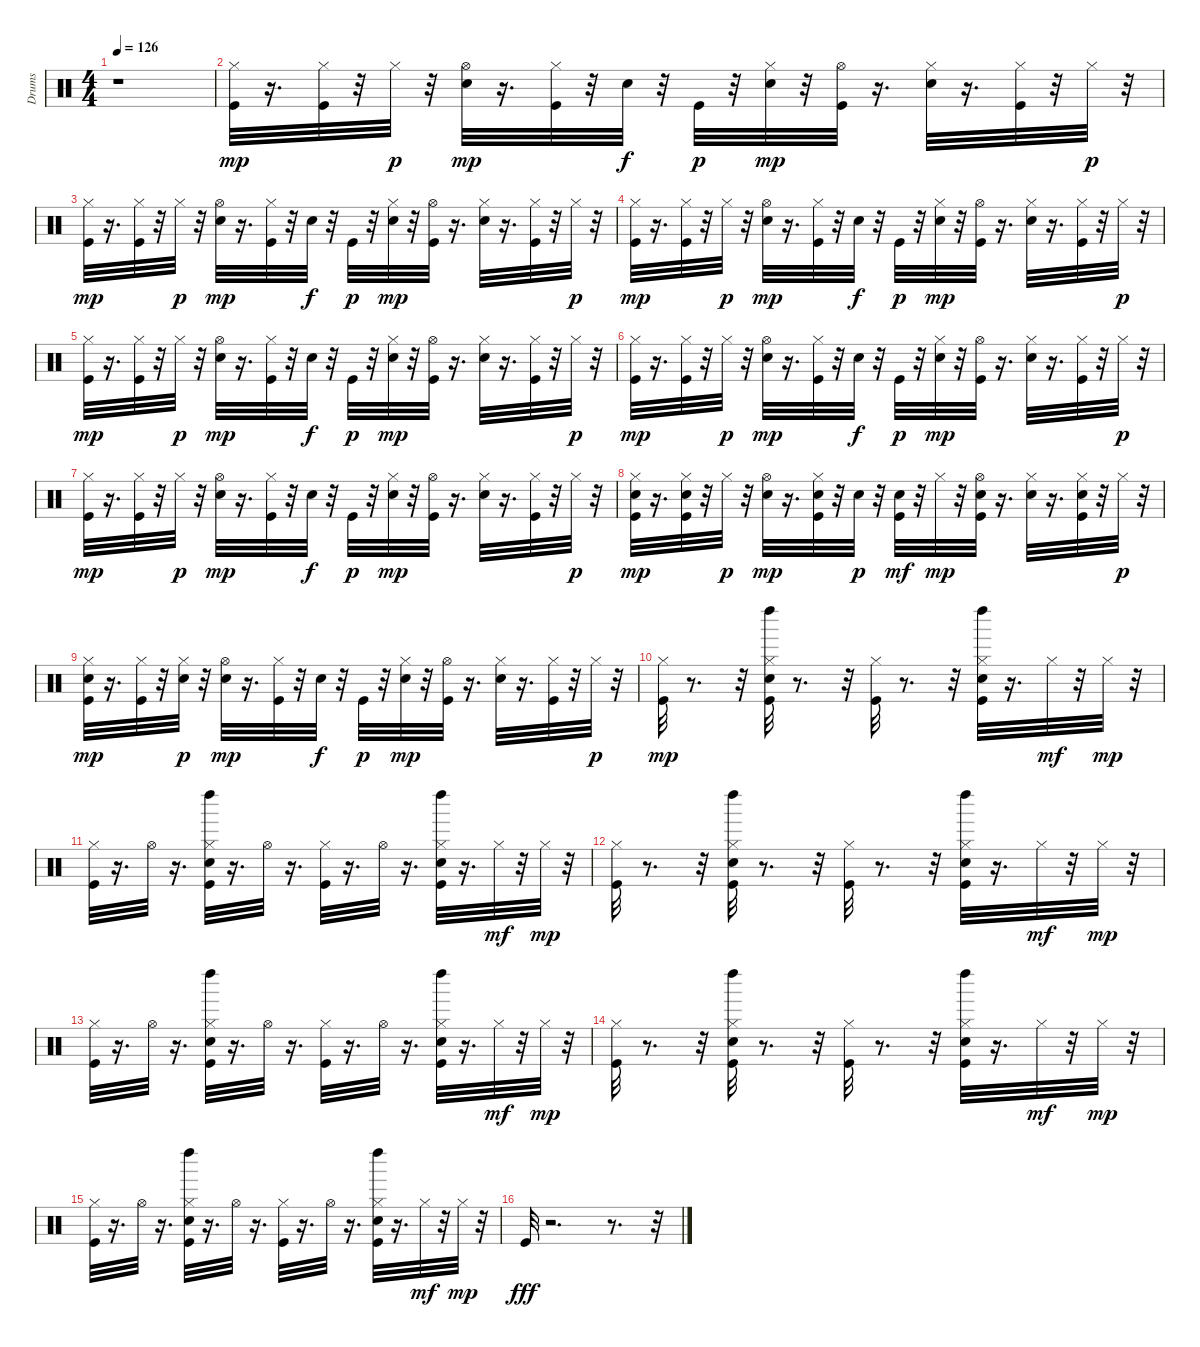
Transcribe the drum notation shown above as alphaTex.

\track ("Drums" "Drums") {instrument percussion}
\staff {score}
\articulation defaults
\ts (4 4)
\tempo 126
\clef neutral
\ks c
r.1{dy fff} |
("Kick (hit)" "Hi-Hat (closed)").32{dy mp} r.16{d} ("Kick (hit)" "Hi-Hat (closed)").32 r.32 "Hi-Hat (closed)".32{dy p} r.32 ("Snare (hit) 2" "Hi-Hat (open)").32{dy mp} r.16{d} ("Kick (hit)" "Hi-Hat (closed)").32 r.32 "Snare (hit) 2".32{dy f} r.32 "Kick (hit)".32{dy p} r.32 ("Snare (hit) 2" "Hi-Hat (closed)").32{dy mp} r.32 ("Kick (hit)" "Hi-Hat (open)").32 r.16{d} ("Snare (hit) 2" "Hi-Hat (closed)").32 r.16{d} ("Kick (hit)" "Hi-Hat (closed)").32 r.32 "Hi-Hat (closed)".32{dy p} r.32 |
("Kick (hit)" "Hi-Hat (closed)").32{dy mp} r.16{d} ("Kick (hit)" "Hi-Hat (closed)").32 r.32 "Hi-Hat (closed)".32{dy p} r.32 ("Snare (hit) 2" "Hi-Hat (open)").32{dy mp} r.16{d} ("Kick (hit)" "Hi-Hat (closed)").32 r.32 "Snare (hit) 2".32{dy f} r.32 "Kick (hit)".32{dy p} r.32 ("Snare (hit) 2" "Hi-Hat (closed)").32{dy mp} r.32 ("Kick (hit)" "Hi-Hat (open)").32 r.16{d} ("Snare (hit) 2" "Hi-Hat (closed)").32 r.16{d} ("Kick (hit)" "Hi-Hat (closed)").32 r.32 "Hi-Hat (closed)".32{dy p} r.32 |
("Kick (hit)" "Hi-Hat (closed)").32{dy mp} r.16{d} ("Kick (hit)" "Hi-Hat (closed)").32 r.32 "Hi-Hat (closed)".32{dy p} r.32 ("Snare (hit) 2" "Hi-Hat (open)").32{dy mp} r.16{d} ("Kick (hit)" "Hi-Hat (closed)").32 r.32 "Snare (hit) 2".32{dy f} r.32 "Kick (hit)".32{dy p} r.32 ("Snare (hit) 2" "Hi-Hat (closed)").32{dy mp} r.32 ("Kick (hit)" "Hi-Hat (open)").32 r.16{d} ("Snare (hit) 2" "Hi-Hat (closed)").32 r.16{d} ("Kick (hit)" "Hi-Hat (closed)").32 r.32 "Hi-Hat (closed)".32{dy p} r.32 |
("Kick (hit)" "Hi-Hat (closed)").32{dy mp} r.16{d} ("Kick (hit)" "Hi-Hat (closed)").32 r.32 "Hi-Hat (closed)".32{dy p} r.32 ("Snare (hit) 2" "Hi-Hat (open)").32{dy mp} r.16{d} ("Kick (hit)" "Hi-Hat (closed)").32 r.32 "Snare (hit) 2".32{dy f} r.32 "Kick (hit)".32{dy p} r.32 ("Snare (hit) 2" "Hi-Hat (closed)").32{dy mp} r.32 ("Kick (hit)" "Hi-Hat (open)").32 r.16{d} ("Snare (hit) 2" "Hi-Hat (closed)").32 r.16{d} ("Kick (hit)" "Hi-Hat (closed)").32 r.32 "Hi-Hat (closed)".32{dy p} r.32 |
("Kick (hit)" "Hi-Hat (closed)").32{dy mp} r.16{d} ("Kick (hit)" "Hi-Hat (closed)").32 r.32 "Hi-Hat (closed)".32{dy p} r.32 ("Snare (hit) 2" "Hi-Hat (open)").32{dy mp} r.16{d} ("Kick (hit)" "Hi-Hat (closed)").32 r.32 "Snare (hit) 2".32{dy f} r.32 "Kick (hit)".32{dy p} r.32 ("Snare (hit) 2" "Hi-Hat (closed)").32{dy mp} r.32 ("Kick (hit)" "Hi-Hat (open)").32 r.16{d} ("Snare (hit) 2" "Hi-Hat (closed)").32 r.16{d} ("Kick (hit)" "Hi-Hat (closed)").32 r.32 "Hi-Hat (closed)".32{dy p} r.32 |
("Kick (hit)" "Hi-Hat (closed)").32{dy mp} r.16{d} ("Kick (hit)" "Hi-Hat (closed)").32 r.32 "Hi-Hat (closed)".32{dy p} r.32 ("Snare (hit) 2" "Hi-Hat (open)").32{dy mp} r.16{d} ("Kick (hit)" "Hi-Hat (closed)").32 r.32 "Snare (hit) 2".32{dy f} r.32 "Kick (hit)".32{dy p} r.32 ("Snare (hit) 2" "Hi-Hat (closed)").32{dy mp} r.32 ("Kick (hit)" "Hi-Hat (open)").32 r.16{d} ("Snare (hit) 2" "Hi-Hat (closed)").32 r.16{d} ("Kick (hit)" "Hi-Hat (closed)").32 r.32 "Hi-Hat (closed)".32{dy p} r.32 |
("Kick (hit)" "Snare (hit) 2" "Hi-Hat (closed)").32{dy mp} r.16{d} ("Kick (hit)" "Snare (hit) 2" "Hi-Hat (closed)").32 r.32 "Hi-Hat (closed)".32{dy p} r.32 ("Snare (hit) 2" "Hi-Hat (open)").32{dy mp} r.16{d} ("Kick (hit)" "Snare (hit) 2" "Hi-Hat (closed)").32 r.32 "Snare (hit) 2".32{dy p} r.32 ("Kick (hit)" "Snare (hit) 2").32{dy mf} r.32 "Hi-Hat (closed)".32{dy mp} r.32 ("Kick (hit)" "Snare (hit) 2" "Hi-Hat (open)").32 r.16{d} ("Snare (hit) 2" "Hi-Hat (closed)").32 r.16{d} ("Kick (hit)" "Snare (hit) 2" "Hi-Hat (closed)").32 r.32 "Hi-Hat (closed)".32{dy p} r.32 |
("Kick (hit)" "Snare (hit) 2" "Hi-Hat (closed)").32{dy mp} r.16{d} ("Kick (hit)" "Hi-Hat (closed)").32 r.32 ("Snare (hit) 2" "Hi-Hat (closed)").32{dy p} r.32 ("Snare (hit) 2" "Hi-Hat (open)").32{dy mp} r.16{d} ("Kick (hit)" "Hi-Hat (closed)").32 r.32 "Snare (hit) 2".32{dy f} r.32 "Kick (hit)".32{dy p} r.32 ("Snare (hit) 2" "Hi-Hat (closed)").32{dy mp} r.32 ("Kick (hit)" "Hi-Hat (open)").32 r.16{d} ("Snare (hit) 2" "Hi-Hat (closed)").32 r.16{d} ("Kick (hit)" "Hi-Hat (closed)").32 r.32 "Hi-Hat (closed)".32{dy p} r.32 |
("Kick (hit)" "Hi-Hat (closed)").32{dy mp} r.8{d} r.32 ("Kick (hit)" "Hand Clap (hit)" "Hi-Hat (closed)" "Left Maraca (hit)").32 r.8{d} r.32 ("Kick (hit)" "Hi-Hat (closed)").32 r.8{d} r.32 ("Kick (hit)" "Hand Clap (hit)" "Hi-Hat (closed)" "Left Maraca (hit)").32 r.16{d} "Hi-Hat (closed)".32{dy mf} r.32 "Hi-Hat (closed)".32{dy mp} r.32 |
("Kick (hit)" "Hi-Hat (closed)").32 r.16{d} "Hi-Hat (open)".32 r.16{d} ("Kick (hit)" "Hand Clap (hit)" "Hi-Hat (closed)" "Left Maraca (hit)").32 r.16{d} "Hi-Hat (open)".32 r.16{d} ("Kick (hit)" "Hi-Hat (closed)").32 r.16{d} "Hi-Hat (open)".32 r.16{d} ("Kick (hit)" "Hand Clap (hit)" "Hi-Hat (closed)" "Left Maraca (hit)").32 r.16{d} "Hi-Hat (closed)".32{dy mf} r.32 "Hi-Hat (closed)".32{dy mp} r.32 |
("Kick (hit)" "Hi-Hat (closed)").32 r.8{d} r.32 ("Kick (hit)" "Hand Clap (hit)" "Hi-Hat (closed)" "Left Maraca (hit)").32 r.8{d} r.32 ("Kick (hit)" "Hi-Hat (closed)").32 r.8{d} r.32 ("Kick (hit)" "Hand Clap (hit)" "Hi-Hat (closed)" "Left Maraca (hit)").32 r.16{d} "Hi-Hat (closed)".32{dy mf} r.32 "Hi-Hat (closed)".32{dy mp} r.32 |
("Kick (hit)" "Hi-Hat (closed)").32 r.16{d} "Hi-Hat (open)".32 r.16{d} ("Kick (hit)" "Hand Clap (hit)" "Hi-Hat (closed)" "Left Maraca (hit)").32 r.16{d} "Hi-Hat (open)".32 r.16{d} ("Kick (hit)" "Hi-Hat (closed)").32 r.16{d} "Hi-Hat (open)".32 r.16{d} ("Kick (hit)" "Hand Clap (hit)" "Hi-Hat (closed)" "Left Maraca (hit)").32 r.16{d} "Hi-Hat (closed)".32{dy mf} r.32 "Hi-Hat (closed)".32{dy mp} r.32 |
("Kick (hit)" "Hi-Hat (closed)").32 r.8{d} r.32 ("Kick (hit)" "Hand Clap (hit)" "Hi-Hat (closed)" "Left Maraca (hit)").32 r.8{d} r.32 ("Kick (hit)" "Hi-Hat (closed)").32 r.8{d} r.32 ("Kick (hit)" "Hand Clap (hit)" "Hi-Hat (closed)" "Left Maraca (hit)").32 r.16{d} "Hi-Hat (closed)".32{dy mf} r.32 "Hi-Hat (closed)".32{dy mp} r.32 |
("Kick (hit)" "Hi-Hat (closed)").32 r.16{d} "Hi-Hat (open)".32 r.16{d} ("Kick (hit)" "Hand Clap (hit)" "Hi-Hat (closed)" "Left Maraca (hit)").32 r.16{d} "Hi-Hat (open)".32 r.16{d} ("Kick (hit)" "Hi-Hat (closed)").32 r.16{d} "Hi-Hat (open)".32 r.16{d} ("Kick (hit)" "Hand Clap (hit)" "Hi-Hat (closed)" "Left Maraca (hit)").32 r.16{d} "Hi-Hat (closed)".32{dy mf} r.32 "Hi-Hat (closed)".32{dy mp} r.32 |
"Kick (hit)".32{dy fff} r.2{d} r.8{d} r.32
